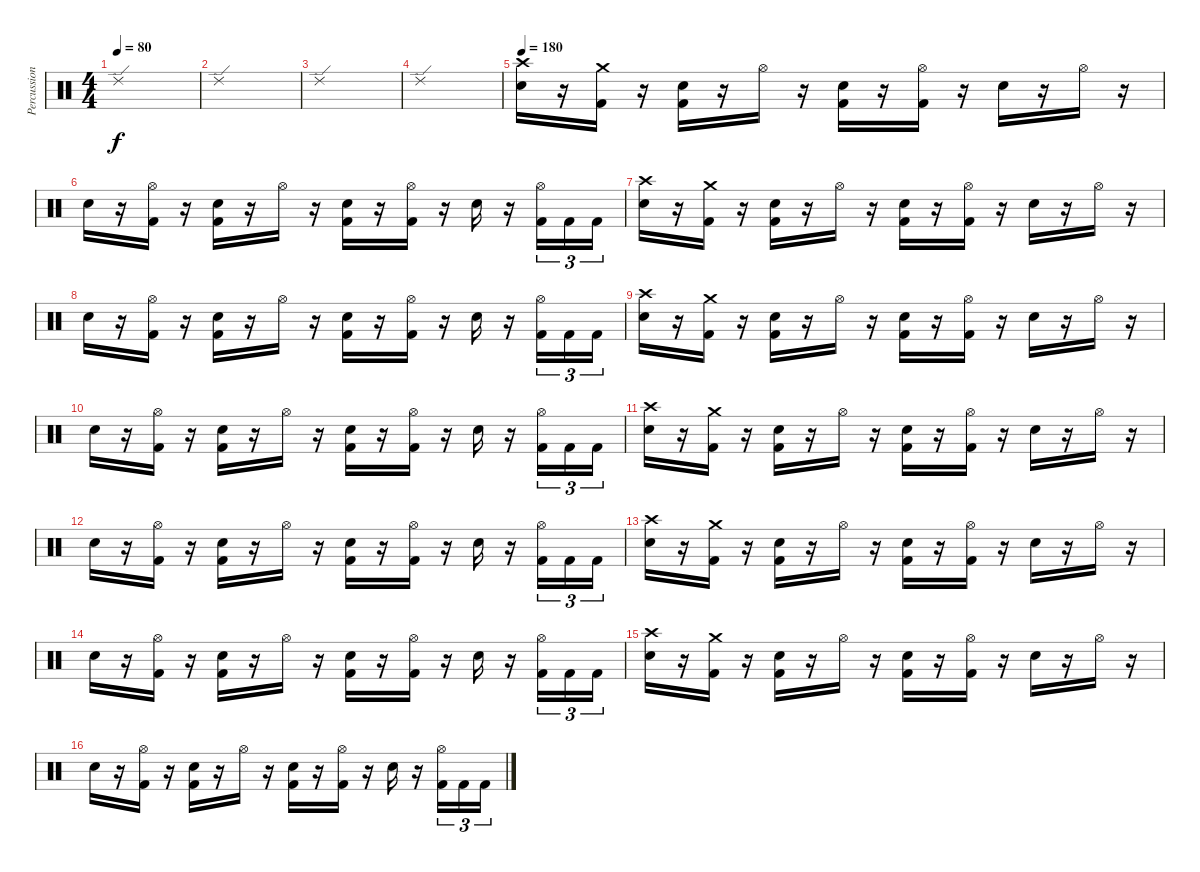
\track ("Percussions" "Percussion") {instrument percussion}
\staff {score}
\articulation defaults
\ts (4 4)
\tempo 80
\clef neutral
\ks c "Ride (edge) 2".1{dy f}
|
"Ride (edge) 2".1 |
"Ride (edge) 2".1 |
"Ride (edge) 2".1 |
\tempo 180
("Crash high (hit)" "Snare (hit) 2").16 r.16 ("Crash medium (hit)" "Kick (hit) 2").16 r.16 ("Snare (hit) 2" "Kick (hit) 2").16 r.16 "Hi-Hat (open)".16 r.16 ("Snare (hit) 2" "Kick (hit) 2").16 r.16 ("Hi-Hat (open)" "Kick (hit) 2").16 r.16 "Snare (hit) 2".16 r.16 "Hi-Hat (open)".16 r.16 |
"Snare (hit) 2".16 r.16 ("Hi-Hat (open)" "Kick (hit) 2").16 r.16 ("Snare (hit) 2" "Kick (hit) 2").16 r.16 "Hi-Hat (open)".16 r.16 ("Snare (hit) 2" "Kick (hit) 2").16 r.16 ("Hi-Hat (open)" "Kick (hit) 2").16 r.16 "Snare (hit) 2".16 r.16 ("Hi-Hat (open)" "Kick (hit) 2").16{tu (3 2)} "Kick (hit) 2".16{tu (3 2)} "Kick (hit) 2".16{tu (3 2)} |
("Crash high (hit)" "Snare (hit) 2").16 r.16 ("Crash medium (hit)" "Kick (hit) 2").16 r.16 ("Snare (hit) 2" "Kick (hit) 2").16 r.16 "Hi-Hat (open)".16 r.16 ("Snare (hit) 2" "Kick (hit) 2").16 r.16 ("Hi-Hat (open)" "Kick (hit) 2").16 r.16 "Snare (hit) 2".16 r.16 "Hi-Hat (open)".16 r.16 |
"Snare (hit) 2".16 r.16 ("Hi-Hat (open)" "Kick (hit) 2").16 r.16 ("Snare (hit) 2" "Kick (hit) 2").16 r.16 "Hi-Hat (open)".16 r.16 ("Snare (hit) 2" "Kick (hit) 2").16 r.16 ("Hi-Hat (open)" "Kick (hit) 2").16 r.16 "Snare (hit) 2".16 r.16 ("Hi-Hat (open)" "Kick (hit) 2").16{tu (3 2)} "Kick (hit) 2".16{tu (3 2)} "Kick (hit) 2".16{tu (3 2)} |
("Crash high (hit)" "Snare (hit) 2").16 r.16 ("Crash medium (hit)" "Kick (hit) 2").16 r.16 ("Snare (hit) 2" "Kick (hit) 2").16 r.16 "Hi-Hat (open)".16 r.16 ("Snare (hit) 2" "Kick (hit) 2").16 r.16 ("Hi-Hat (open)" "Kick (hit) 2").16 r.16 "Snare (hit) 2".16 r.16 "Hi-Hat (open)".16 r.16 |
"Snare (hit) 2".16 r.16 ("Hi-Hat (open)" "Kick (hit) 2").16 r.16 ("Snare (hit) 2" "Kick (hit) 2").16 r.16 "Hi-Hat (open)".16 r.16 ("Snare (hit) 2" "Kick (hit) 2").16 r.16 ("Hi-Hat (open)" "Kick (hit) 2").16 r.16 "Snare (hit) 2".16 r.16 ("Hi-Hat (open)" "Kick (hit) 2").16{tu (3 2)} "Kick (hit) 2".16{tu (3 2)} "Kick (hit) 2".16{tu (3 2)} |
("Crash high (hit)" "Snare (hit) 2").16 r.16 ("Crash medium (hit)" "Kick (hit) 2").16 r.16 ("Snare (hit) 2" "Kick (hit) 2").16 r.16 "Hi-Hat (open)".16 r.16 ("Snare (hit) 2" "Kick (hit) 2").16 r.16 ("Hi-Hat (open)" "Kick (hit) 2").16 r.16 "Snare (hit) 2".16 r.16 "Hi-Hat (open)".16 r.16 |
"Snare (hit) 2".16 r.16 ("Hi-Hat (open)" "Kick (hit) 2").16 r.16 ("Snare (hit) 2" "Kick (hit) 2").16 r.16 "Hi-Hat (open)".16 r.16 ("Snare (hit) 2" "Kick (hit) 2").16 r.16 ("Hi-Hat (open)" "Kick (hit) 2").16 r.16 "Snare (hit) 2".16 r.16 ("Hi-Hat (open)" "Kick (hit) 2").16{tu (3 2)} "Kick (hit) 2".16{tu (3 2)} "Kick (hit) 2".16{tu (3 2)} |
("Crash high (hit)" "Snare (hit) 2").16 r.16 ("Crash medium (hit)" "Kick (hit) 2").16 r.16 ("Snare (hit) 2" "Kick (hit) 2").16 r.16 "Hi-Hat (open)".16 r.16 ("Snare (hit) 2" "Kick (hit) 2").16 r.16 ("Hi-Hat (open)" "Kick (hit) 2").16 r.16 "Snare (hit) 2".16 r.16 "Hi-Hat (open)".16 r.16 |
"Snare (hit) 2".16 r.16 ("Hi-Hat (open)" "Kick (hit) 2").16 r.16 ("Snare (hit) 2" "Kick (hit) 2").16 r.16 "Hi-Hat (open)".16 r.16 ("Snare (hit) 2" "Kick (hit) 2").16 r.16 ("Hi-Hat (open)" "Kick (hit) 2").16 r.16 "Snare (hit) 2".16 r.16 ("Hi-Hat (open)" "Kick (hit) 2").16{tu (3 2)} "Kick (hit) 2".16{tu (3 2)} "Kick (hit) 2".16{tu (3 2)} |
("Crash high (hit)" "Snare (hit) 2").16 r.16 ("Crash medium (hit)" "Kick (hit) 2").16 r.16 ("Snare (hit) 2" "Kick (hit) 2").16 r.16 "Hi-Hat (open)".16 r.16 ("Snare (hit) 2" "Kick (hit) 2").16 r.16 ("Hi-Hat (open)" "Kick (hit) 2").16 r.16 "Snare (hit) 2".16 r.16 "Hi-Hat (open)".16 r.16 |
"Snare (hit) 2".16 r.16 ("Hi-Hat (open)" "Kick (hit) 2").16 r.16 ("Snare (hit) 2" "Kick (hit) 2").16 r.16 "Hi-Hat (open)".16 r.16 ("Snare (hit) 2" "Kick (hit) 2").16 r.16 ("Hi-Hat (open)" "Kick (hit) 2").16 r.16 "Snare (hit) 2".16 r.16 ("Hi-Hat (open)" "Kick (hit) 2").16{tu (3 2)} "Kick (hit) 2".16{tu (3 2)} "Kick (hit) 2".16{tu (3 2)}
